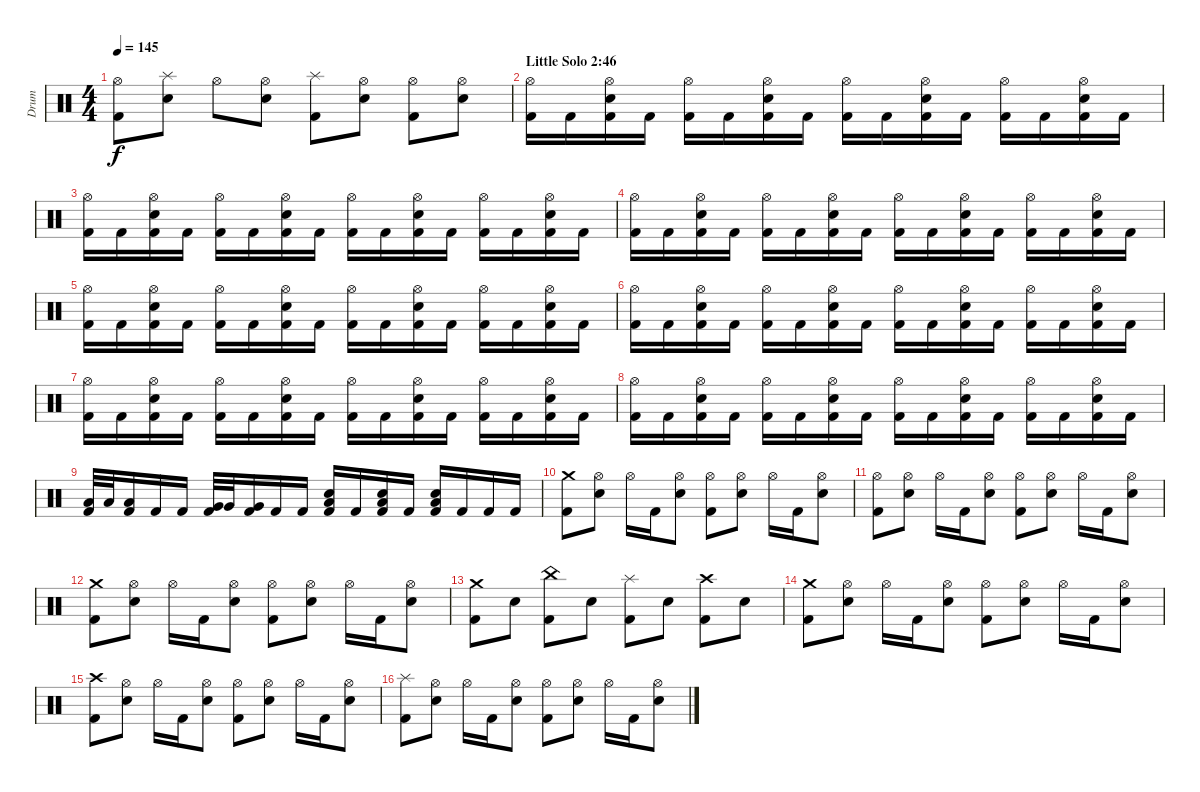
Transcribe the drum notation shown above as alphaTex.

\track ("Drum" "Drum") {instrument percussion}
\staff {score}
\articulation defaults
\ts (4 4)
\tempo 145
\clef neutral
\ks c
("Hi-Hat (open)" "Kick (hit) 2").8{dy f} ("Splash (hit)" "Snare (hit) 2").8 "Hi-Hat (open)".8 ("Hi-Hat (open)" "Snare (hit) 2").8 ("Splash (hit)" "Kick (hit) 2").8 ("Hi-Hat (open)" "Snare (hit) 2").8 ("Hi-Hat (open)" "Kick (hit) 2").8 ("Hi-Hat (open)" "Snare (hit) 2").8 |
\section ("" "Little Solo 2:46")
("Hi-Hat (open)" "Kick (hit) 2").16 "Kick (hit) 2".16 ("Hi-Hat (open)" "Snare (hit) 2" "Kick (hit) 2").16 "Kick (hit) 2".16 ("Hi-Hat (open)" "Kick (hit) 2").16 "Kick (hit) 2".16 ("Hi-Hat (open)" "Snare (hit) 2" "Kick (hit) 2").16 "Kick (hit) 2".16 ("Hi-Hat (open)" "Kick (hit) 2").16 "Kick (hit) 2".16 ("Hi-Hat (open)" "Snare (hit) 2" "Kick (hit) 2").16 "Kick (hit) 2".16 ("Hi-Hat (open)" "Kick (hit) 2").16 "Kick (hit) 2".16 ("Hi-Hat (open)" "Snare (hit) 2" "Kick (hit) 2").16 "Kick (hit) 2".16 |
("Hi-Hat (open)" "Kick (hit) 2").16 "Kick (hit) 2".16 ("Hi-Hat (open)" "Snare (hit) 2" "Kick (hit) 2").16 "Kick (hit) 2".16 ("Hi-Hat (open)" "Kick (hit) 2").16 "Kick (hit) 2".16 ("Hi-Hat (open)" "Snare (hit) 2" "Kick (hit) 2").16 "Kick (hit) 2".16 ("Hi-Hat (open)" "Kick (hit) 2").16 "Kick (hit) 2".16 ("Hi-Hat (open)" "Snare (hit) 2" "Kick (hit) 2").16 "Kick (hit) 2".16 ("Hi-Hat (open)" "Kick (hit) 2").16 "Kick (hit) 2".16 ("Hi-Hat (open)" "Snare (hit) 2" "Kick (hit) 2").16 "Kick (hit) 2".16 |
("Hi-Hat (open)" "Kick (hit) 2").16 "Kick (hit) 2".16 ("Hi-Hat (open)" "Snare (hit) 2" "Kick (hit) 2").16 "Kick (hit) 2".16 ("Hi-Hat (open)" "Kick (hit) 2").16 "Kick (hit) 2".16 ("Hi-Hat (open)" "Snare (hit) 2" "Kick (hit) 2").16 "Kick (hit) 2".16 ("Hi-Hat (open)" "Kick (hit) 2").16 "Kick (hit) 2".16 ("Hi-Hat (open)" "Snare (hit) 2" "Kick (hit) 2").16 "Kick (hit) 2".16 ("Hi-Hat (open)" "Kick (hit) 2").16 "Kick (hit) 2".16 ("Hi-Hat (open)" "Snare (hit) 2" "Kick (hit) 2").16 "Kick (hit) 2".16 |
("Hi-Hat (open)" "Kick (hit) 2").16 "Kick (hit) 2".16 ("Hi-Hat (open)" "Snare (hit) 2" "Kick (hit) 2").16 "Kick (hit) 2".16 ("Hi-Hat (open)" "Kick (hit) 2").16 "Kick (hit) 2".16 ("Hi-Hat (open)" "Snare (hit) 2" "Kick (hit) 2").16 "Kick (hit) 2".16 ("Hi-Hat (open)" "Kick (hit) 2").16 "Kick (hit) 2".16 ("Hi-Hat (open)" "Snare (hit) 2" "Kick (hit) 2").16 "Kick (hit) 2".16 ("Hi-Hat (open)" "Kick (hit) 2").16 "Kick (hit) 2".16 ("Hi-Hat (open)" "Snare (hit) 2" "Kick (hit) 2").16 "Kick (hit) 2".16 |
("Hi-Hat (open)" "Kick (hit) 2").16 "Kick (hit) 2".16 ("Hi-Hat (open)" "Snare (hit) 2" "Kick (hit) 2").16 "Kick (hit) 2".16 ("Hi-Hat (open)" "Kick (hit) 2").16 "Kick (hit) 2".16 ("Hi-Hat (open)" "Snare (hit) 2" "Kick (hit) 2").16 "Kick (hit) 2".16 ("Hi-Hat (open)" "Kick (hit) 2").16 "Kick (hit) 2".16 ("Hi-Hat (open)" "Snare (hit) 2" "Kick (hit) 2").16 "Kick (hit) 2".16 ("Hi-Hat (open)" "Kick (hit) 2").16 "Kick (hit) 2".16 ("Hi-Hat (open)" "Snare (hit) 2" "Kick (hit) 2").16 "Kick (hit) 2".16 |
("Hi-Hat (open)" "Kick (hit) 2").16 "Kick (hit) 2".16 ("Hi-Hat (open)" "Snare (hit) 2" "Kick (hit) 2").16 "Kick (hit) 2".16 ("Hi-Hat (open)" "Kick (hit) 2").16 "Kick (hit) 2".16 ("Hi-Hat (open)" "Snare (hit) 2" "Kick (hit) 2").16 "Kick (hit) 2".16 ("Hi-Hat (open)" "Kick (hit) 2").16 "Kick (hit) 2".16 ("Hi-Hat (open)" "Snare (hit) 2" "Kick (hit) 2").16 "Kick (hit) 2".16 ("Hi-Hat (open)" "Kick (hit) 2").16 "Kick (hit) 2".16 ("Hi-Hat (open)" "Snare (hit) 2" "Kick (hit) 2").16 "Kick (hit) 2".16 |
("Hi-Hat (open)" "Kick (hit) 2").16 "Kick (hit) 2".16 ("Hi-Hat (open)" "Snare (hit) 2" "Kick (hit) 2").16 "Kick (hit) 2".16 ("Hi-Hat (open)" "Kick (hit) 2").16 "Kick (hit) 2".16 ("Hi-Hat (open)" "Snare (hit) 2" "Kick (hit) 2").16 "Kick (hit) 2".16 ("Hi-Hat (open)" "Kick (hit) 2").16 "Kick (hit) 2".16 ("Hi-Hat (open)" "Snare (hit) 2" "Kick (hit) 2").16 "Kick (hit) 2".16 ("Hi-Hat (open)" "Kick (hit) 2").16 "Kick (hit) 2".16 ("Hi-Hat (open)" "Snare (hit) 2" "Kick (hit) 2").16 "Kick (hit) 2".16 |
("Low Tom (hit)" "Kick (hit) 2").32 "Low Tom (hit)".32 ("Low Tom (hit)" "Kick (hit) 2").16 "Kick (hit) 2".16 "Kick (hit) 2".16 ("Very Low Tom (hit)" "Kick (hit) 2").32 "Very Low Tom (hit)".32 ("Very Low Tom (hit)" "Kick (hit) 2").16 "Kick (hit) 2".16 "Kick (hit) 2".16 ("Low Floor Tom (hit)" "Snare (hit) 2" "Kick (hit) 2").16{volume 13} "Kick (hit) 2".16 ("Low Floor Tom (hit)" "Snare (hit) 2" "Kick (hit) 2").16 "Kick (hit) 2".16 ("Low Floor Tom (hit)" "Snare (hit) 2" "Kick (hit) 2").16 "Kick (hit) 2".16 "Kick (hit) 2".16 "Kick (hit) 2".16 |
("Crash medium (hit)" "Kick (hit) 2").8 ("Hi-Hat (open)" "Snare (hit) 2").8 "Hi-Hat (open)".16 "Kick (hit) 2".16 ("Hi-Hat (open)" "Snare (hit) 2").8 ("Hi-Hat (open)" "Kick (hit) 2").8 ("Hi-Hat (open)" "Snare (hit) 2").8 "Hi-Hat (open)".16 "Kick (hit) 2".16 ("Hi-Hat (open)" "Snare (hit) 2").8 |
("Hi-Hat (open)" "Kick (hit) 2").8 ("Hi-Hat (open)" "Snare (hit) 2").8 "Hi-Hat (open)".16 "Kick (hit) 2".16 ("Hi-Hat (open)" "Snare (hit) 2").8 ("Hi-Hat (open)" "Kick (hit) 2").8 ("Hi-Hat (open)" "Snare (hit) 2").8 "Hi-Hat (open)".16 "Kick (hit) 2".16 ("Hi-Hat (open)" "Snare (hit) 2").8 |
("Crash medium (hit)" "Kick (hit) 2").8 ("Hi-Hat (open)" "Snare (hit) 2").8 "Hi-Hat (open)".16 "Kick (hit) 2".16 ("Hi-Hat (open)" "Snare (hit) 2").8 ("Hi-Hat (open)" "Kick (hit) 2").8 ("Hi-Hat (open)" "Snare (hit) 2").8 "Hi-Hat (open)".16 "Kick (hit) 2".16 ("Hi-Hat (open)" "Snare (hit) 2").8 |
("Crash medium (hit)" "Kick (hit) 2").8 "Snare (hit) 2".8 ("China (hit)" "Kick (hit) 2").8 "Snare (hit) 2".8 ("Splash (hit)" "Kick (hit) 2").8 "Snare (hit) 2".8 ("Crash high (hit)" "Kick (hit) 2").8 "Snare (hit) 2".8 |
("Crash medium (hit)" "Kick (hit) 2").8 ("Hi-Hat (open)" "Snare (hit) 2").8 "Hi-Hat (open)".16 "Kick (hit) 2".16 ("Hi-Hat (open)" "Snare (hit) 2").8 ("Hi-Hat (open)" "Kick (hit) 2").8 ("Hi-Hat (open)" "Snare (hit) 2").8 "Hi-Hat (open)".16 "Kick (hit) 2".16 ("Hi-Hat (open)" "Snare (hit) 2").8 |
("Crash high (hit)" "Kick (hit) 2").8 ("Hi-Hat (open)" "Snare (hit) 2").8 "Hi-Hat (open)".16 "Kick (hit) 2".16 ("Hi-Hat (open)" "Snare (hit) 2").8 ("Hi-Hat (open)" "Kick (hit) 2").8 ("Hi-Hat (open)" "Snare (hit) 2").8 "Hi-Hat (open)".16 "Kick (hit) 2".16 ("Hi-Hat (open)" "Snare (hit) 2").8 |
("Splash (hit)" "Kick (hit) 2").8 ("Hi-Hat (open)" "Snare (hit) 2").8 "Hi-Hat (open)".16 "Kick (hit) 2".16 ("Hi-Hat (open)" "Snare (hit) 2").8 ("Hi-Hat (open)" "Kick (hit) 2").8 ("Hi-Hat (open)" "Snare (hit) 2").8 "Hi-Hat (open)".16 "Kick (hit) 2".16 ("Hi-Hat (open)" "Snare (hit) 2").8
